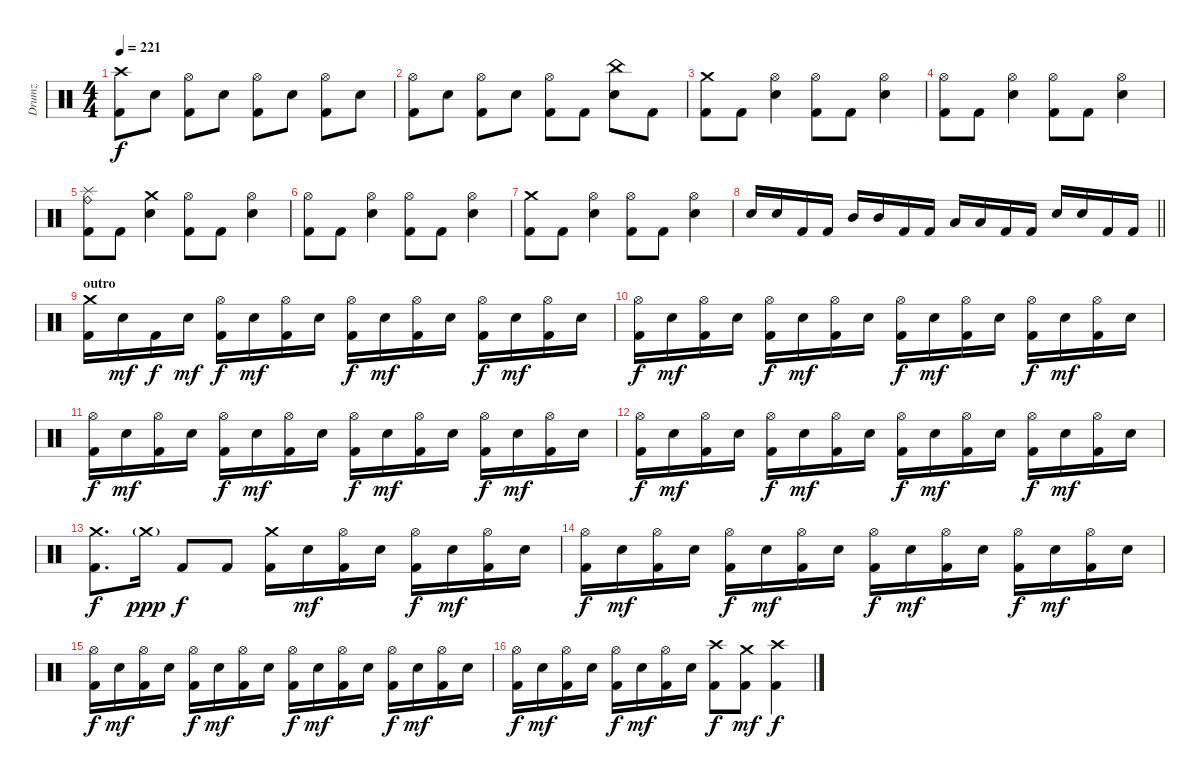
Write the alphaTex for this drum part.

\track ("Drumz" "Drumz") {instrument percussion}
\staff {score}
\articulation defaults
\ts (4 4)
\tempo 221
\clef neutral
\ks c
("Crash high (hit)" "Kick (hit) 2").8{dy f} "Electric Snare (hit)".8 ("Hi-Hat (open)" "Kick (hit) 2").8 "Electric Snare (hit)".8 ("Hi-Hat (open)" "Kick (hit) 2").8 "Electric Snare (hit)".8 ("Hi-Hat (open)" "Kick (hit) 2").8 "Electric Snare (hit)".8 |
("Hi-Hat (open)" "Kick (hit) 2").8 "Electric Snare (hit)".8 ("Hi-Hat (open)" "Kick (hit) 2").8 "Electric Snare (hit)".8 ("Hi-Hat (open)" "Kick (hit) 2").8 "Kick (hit) 2".8 ("China (hit)" "Electric Snare (hit)").8 "Kick (hit) 2".8 |
("Crash medium (hit)" "Kick (hit) 2").8 "Kick (hit) 2".8 ("Hi-Hat (open)" "Electric Snare (hit)").4 ("Hi-Hat (open)" "Kick (hit) 2").8 "Kick (hit) 2".8 ("Hi-Hat (open)" "Electric Snare (hit)").4 |
("Hi-Hat (open)" "Kick (hit) 2").8 "Kick (hit) 2".8 ("Hi-Hat (open)" "Electric Snare (hit)").4 ("Hi-Hat (open)" "Kick (hit) 2").8 "Kick (hit) 2".8 ("Hi-Hat (open)" "Electric Snare (hit)").4 |
("Splash (hit)" "Ride (bell)" "Kick (hit) 2").8 "Kick (hit) 2".8 ("Crash medium (hit)" "Electric Snare (hit)").4 ("Hi-Hat (open)" "Kick (hit) 2").8 "Kick (hit) 2".8 ("Hi-Hat (open)" "Electric Snare (hit)").4 |
("Hi-Hat (open)" "Kick (hit) 2").8 "Kick (hit) 2".8 ("Hi-Hat (open)" "Electric Snare (hit)").4 ("Hi-Hat (open)" "Kick (hit) 2").8 "Kick (hit) 2".8 ("Hi-Hat (open)" "Electric Snare (hit)").4 |
("Crash medium (hit)" "Kick (hit) 2").8 "Kick (hit) 2".8 ("Hi-Hat (open)" "Electric Snare (hit)").4 ("Hi-Hat (open)" "Kick (hit) 2").8 "Kick (hit) 2".8 ("Hi-Hat (open)" "Electric Snare (hit)").4 |
\barLineRight lightlight "Electric Snare (hit)".16 "Electric Snare (hit)".16 "Kick (hit) 2".16 "Kick (hit) 2".16 "Mid Tom (hit)".16 "Mid Tom (hit)".16 "Kick (hit) 2".16 "Kick (hit) 2".16 "Low Tom (hit)".16 "Low Tom (hit)".16 "Kick (hit) 2".16 "Kick (hit) 2".16 "Electric Snare (hit)".16 "Electric Snare (hit)".16 "Kick (hit) 2".16 "Kick (hit) 2".16
|
\section ("" "outro")
("Crash medium (hit)" "Kick (hit) 2").16 "Electric Snare (hit)".16{dy mf} "Kick (hit) 2".16{dy f} "Electric Snare (hit)".16{dy mf} ("Hi-Hat (open)" "Kick (hit) 2").16{dy f} "Electric Snare (hit)".16{dy mf} ("Hi-Hat (open)" "Kick (hit) 2").16 "Electric Snare (hit)".16 ("Hi-Hat (open)" "Kick (hit) 2").16{dy f} "Electric Snare (hit)".16{dy mf} ("Hi-Hat (open)" "Kick (hit) 2").16 "Electric Snare (hit)".16 ("Hi-Hat (open)" "Kick (hit) 2").16{dy f} "Electric Snare (hit)".16{dy mf} ("Hi-Hat (open)" "Kick (hit) 2").16 "Electric Snare (hit)".16 |
("Hi-Hat (open)" "Kick (hit) 2").16{dy f} "Electric Snare (hit)".16{dy mf} ("Hi-Hat (open)" "Kick (hit) 2").16 "Electric Snare (hit)".16 ("Hi-Hat (open)" "Kick (hit) 2").16{dy f} "Electric Snare (hit)".16{dy mf} ("Hi-Hat (open)" "Kick (hit) 2").16 "Electric Snare (hit)".16 ("Hi-Hat (open)" "Kick (hit) 2").16{dy f} "Electric Snare (hit)".16{dy mf} ("Hi-Hat (open)" "Kick (hit) 2").16 "Electric Snare (hit)".16 ("Hi-Hat (open)" "Kick (hit) 2").16{dy f} "Electric Snare (hit)".16{dy mf} ("Hi-Hat (open)" "Kick (hit) 2").16 "Electric Snare (hit)".16 |
("Hi-Hat (open)" "Kick (hit) 2").16{dy f} "Electric Snare (hit)".16{dy mf} ("Hi-Hat (open)" "Kick (hit) 2").16 "Electric Snare (hit)".16 ("Hi-Hat (open)" "Kick (hit) 2").16{dy f} "Electric Snare (hit)".16{dy mf} ("Hi-Hat (open)" "Kick (hit) 2").16 "Electric Snare (hit)".16 ("Hi-Hat (open)" "Kick (hit) 2").16{dy f} "Electric Snare (hit)".16{dy mf} ("Hi-Hat (open)" "Kick (hit) 2").16 "Electric Snare (hit)".16 ("Hi-Hat (open)" "Kick (hit) 2").16{dy f} "Electric Snare (hit)".16{dy mf} ("Hi-Hat (open)" "Kick (hit) 2").16 "Electric Snare (hit)".16 |
("Hi-Hat (open)" "Kick (hit) 2").16{dy f} "Electric Snare (hit)".16{dy mf} ("Hi-Hat (open)" "Kick (hit) 2").16 "Electric Snare (hit)".16 ("Hi-Hat (open)" "Kick (hit) 2").16{dy f} "Electric Snare (hit)".16{dy mf} ("Hi-Hat (open)" "Kick (hit) 2").16 "Electric Snare (hit)".16 ("Hi-Hat (open)" "Kick (hit) 2").16{dy f} "Electric Snare (hit)".16{dy mf} ("Hi-Hat (open)" "Kick (hit) 2").16 "Electric Snare (hit)".16 ("Hi-Hat (open)" "Kick (hit) 2").16{dy f} "Electric Snare (hit)".16{dy mf} ("Hi-Hat (open)" "Kick (hit) 2").16 "Electric Snare (hit)".16 |
("Crash medium (hit)" "Kick (hit) 2").8{d dy f} "Crash medium (hit)"{g}.16{dy ppp} "Kick (hit) 2".8{dy f} "Kick (hit) 2".8 ("Crash medium (hit)" "Kick (hit) 2").16 "Electric Snare (hit)".16{dy mf} ("Hi-Hat (open)" "Kick (hit) 2").16 "Electric Snare (hit)".16 ("Hi-Hat (open)" "Kick (hit) 2").16{dy f} "Electric Snare (hit)".16{dy mf} ("Hi-Hat (open)" "Kick (hit) 2").16 "Electric Snare (hit)".16 |
("Hi-Hat (open)" "Kick (hit) 2").16{dy f} "Electric Snare (hit)".16{dy mf} ("Hi-Hat (open)" "Kick (hit) 2").16 "Electric Snare (hit)".16 ("Hi-Hat (open)" "Kick (hit) 2").16{dy f} "Electric Snare (hit)".16{dy mf} ("Hi-Hat (open)" "Kick (hit) 2").16 "Electric Snare (hit)".16 ("Hi-Hat (open)" "Kick (hit) 2").16{dy f} "Electric Snare (hit)".16{dy mf} ("Hi-Hat (open)" "Kick (hit) 2").16 "Electric Snare (hit)".16 ("Hi-Hat (open)" "Kick (hit) 2").16{dy f} "Electric Snare (hit)".16{dy mf} ("Hi-Hat (open)" "Kick (hit) 2").16 "Electric Snare (hit)".16 |
("Hi-Hat (open)" "Kick (hit) 2").16{dy f} "Electric Snare (hit)".16{dy mf} ("Hi-Hat (open)" "Kick (hit) 2").16 "Electric Snare (hit)".16 ("Hi-Hat (open)" "Kick (hit) 2").16{dy f} "Electric Snare (hit)".16{dy mf} ("Hi-Hat (open)" "Kick (hit) 2").16 "Electric Snare (hit)".16 ("Hi-Hat (open)" "Kick (hit) 2").16{dy f} "Electric Snare (hit)".16{dy mf} ("Hi-Hat (open)" "Kick (hit) 2").16 "Electric Snare (hit)".16 ("Hi-Hat (open)" "Kick (hit) 2").16{dy f} "Electric Snare (hit)".16{dy mf} ("Hi-Hat (open)" "Kick (hit) 2").16 "Electric Snare (hit)".16 |
("Hi-Hat (open)" "Kick (hit) 2").16{dy f} "Electric Snare (hit)".16{dy mf} ("Hi-Hat (open)" "Kick (hit) 2").16 "Electric Snare (hit)".16 ("Hi-Hat (open)" "Kick (hit) 2").16{dy f} "Electric Snare (hit)".16{dy mf} ("Hi-Hat (open)" "Kick (hit) 2").16 "Electric Snare (hit)".16 ("Crash high (hit)" "Kick (hit) 2").8{dy f} ("Crash medium (hit)" "Kick (hit) 2").8{dy mf} ("Crash high (hit)" "Kick (hit) 2").4{dy f}
